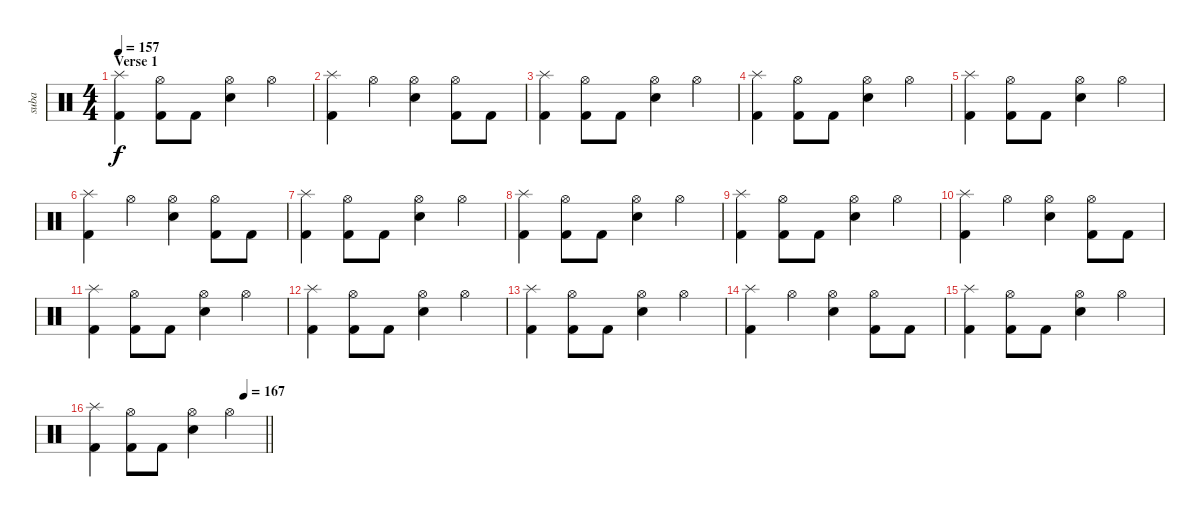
\track ("suba" "suba") {instrument percussion}
\staff {score}
\articulation defaults
\ts (4 4)
\section ("" "Verse 1")
\tempo 157
\clef neutral
\ks c
("Splash (hit)" "Kick (hit) 2").4{dy f} ("Hi-Hat (open)" "Kick (hit) 2").8 "Kick (hit) 2".8 ("Hi-Hat (open)" "Electric Snare (hit)").4 "Hi-Hat (open)".4 |
("Splash (hit)" "Kick (hit) 2").4 "Hi-Hat (open)".4 ("Hi-Hat (open)" "Electric Snare (hit)").4 ("Hi-Hat (open)" "Kick (hit) 2").8 "Kick (hit) 2".8 |
("Splash (hit)" "Kick (hit) 2").4 ("Hi-Hat (open)" "Kick (hit) 2").8 "Kick (hit) 2".8 ("Hi-Hat (open)" "Electric Snare (hit)").4 "Hi-Hat (open)".4 |
("Splash (hit)" "Kick (hit) 2").4 ("Hi-Hat (open)" "Kick (hit) 2").8 "Kick (hit) 2".8 ("Hi-Hat (open)" "Electric Snare (hit)").4 "Hi-Hat (open)".4 |
("Splash (hit)" "Kick (hit) 2").4 ("Hi-Hat (open)" "Kick (hit) 2").8 "Kick (hit) 2".8 ("Hi-Hat (open)" "Electric Snare (hit)").4 "Hi-Hat (open)".4 |
("Splash (hit)" "Kick (hit) 2").4 "Hi-Hat (open)".4 ("Hi-Hat (open)" "Electric Snare (hit)").4 ("Hi-Hat (open)" "Kick (hit) 2").8 "Kick (hit) 2".8 |
("Splash (hit)" "Kick (hit) 2").4 ("Hi-Hat (open)" "Kick (hit) 2").8 "Kick (hit) 2".8 ("Hi-Hat (open)" "Electric Snare (hit)").4 "Hi-Hat (open)".4 |
("Splash (hit)" "Kick (hit) 2").4 ("Hi-Hat (open)" "Kick (hit) 2").8 "Kick (hit) 2".8 ("Hi-Hat (open)" "Electric Snare (hit)").4 "Hi-Hat (open)".4 |
("Splash (hit)" "Kick (hit) 2").4 ("Hi-Hat (open)" "Kick (hit) 2").8 "Kick (hit) 2".8 ("Hi-Hat (open)" "Electric Snare (hit)").4 "Hi-Hat (open)".4 |
("Splash (hit)" "Kick (hit) 2").4 "Hi-Hat (open)".4 ("Hi-Hat (open)" "Electric Snare (hit)").4 ("Hi-Hat (open)" "Kick (hit) 2").8 "Kick (hit) 2".8 |
("Splash (hit)" "Kick (hit) 2").4 ("Hi-Hat (open)" "Kick (hit) 2").8 "Kick (hit) 2".8 ("Hi-Hat (open)" "Electric Snare (hit)").4 "Hi-Hat (open)".4 |
("Splash (hit)" "Kick (hit) 2").4 ("Hi-Hat (open)" "Kick (hit) 2").8 "Kick (hit) 2".8 ("Hi-Hat (open)" "Electric Snare (hit)").4 "Hi-Hat (open)".4 |
("Splash (hit)" "Kick (hit) 2").4 ("Hi-Hat (open)" "Kick (hit) 2").8 "Kick (hit) 2".8 ("Hi-Hat (open)" "Electric Snare (hit)").4 "Hi-Hat (open)".4 |
("Splash (hit)" "Kick (hit) 2").4 "Hi-Hat (open)".4 ("Hi-Hat (open)" "Electric Snare (hit)").4 ("Hi-Hat (open)" "Kick (hit) 2").8 "Kick (hit) 2".8 |
("Splash (hit)" "Kick (hit) 2").4 ("Hi-Hat (open)" "Kick (hit) 2").8 "Kick (hit) 2".8 ("Hi-Hat (open)" "Electric Snare (hit)").4 "Hi-Hat (open)".4 |
\tempo (167 0.875)
\barLineRight lightlight
("Splash (hit)" "Kick (hit) 2").4 ("Hi-Hat (open)" "Kick (hit) 2").8 "Kick (hit) 2".8 ("Hi-Hat (open)" "Electric Snare (hit)").4 "Hi-Hat (open)".4
